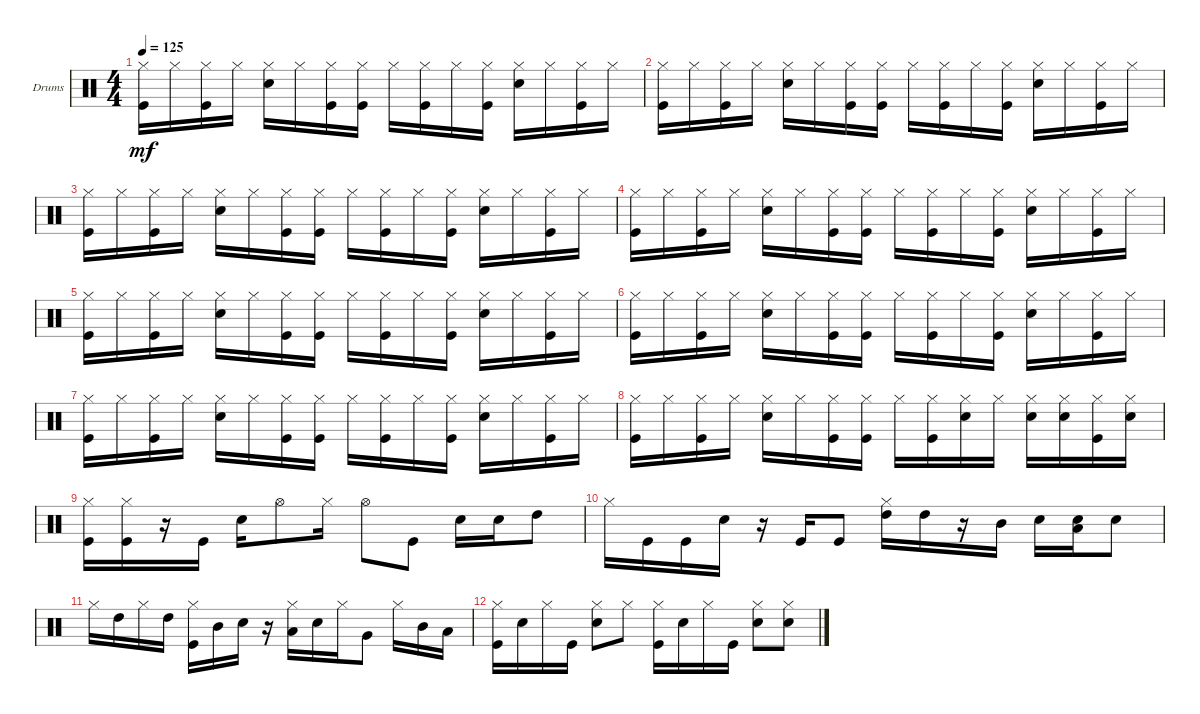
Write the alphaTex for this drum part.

\defaultSystemsLayout 4
\bracketExtendMode groupsimilarinstruments
\firstSystemTrackNameOrientation horizontal
\otherSystemsTrackNameOrientation horizontal
\track ("Drumkit" "Drums") {instrument percussion}
\staff {score}
\articulation defaults
\ts (4 4)
\tempo 125
\clef neutral
\ks c
("Hi-Hat (closed)" "Kick (hit)").16{dy mf} "Hi-Hat (closed)".16 ("Hi-Hat (closed)" "Kick (hit)").16 "Hi-Hat (closed)".16 ("Hi-Hat (closed)" "Snare (hit) 2").16 "Hi-Hat (closed)".16 ("Hi-Hat (closed)" "Kick (hit)").16 ("Hi-Hat (closed)" "Kick (hit)").16 "Hi-Hat (closed)".16 ("Hi-Hat (closed)" "Kick (hit)").16 "Hi-Hat (closed)".16 ("Hi-Hat (closed)" "Kick (hit)").16 ("Hi-Hat (closed)" "Snare (hit) 2").16 "Hi-Hat (closed)".16 ("Hi-Hat (closed)" "Kick (hit)").16 "Hi-Hat (closed)".16 |
("Hi-Hat (closed)" "Kick (hit)").16 "Hi-Hat (closed)".16 ("Hi-Hat (closed)" "Kick (hit)").16 "Hi-Hat (closed)".16 ("Hi-Hat (closed)" "Snare (hit) 2").16 "Hi-Hat (closed)".16 ("Hi-Hat (closed)" "Kick (hit)").16 ("Hi-Hat (closed)" "Kick (hit)").16 "Hi-Hat (closed)".16 ("Hi-Hat (closed)" "Kick (hit)").16 "Hi-Hat (closed)".16 ("Hi-Hat (closed)" "Kick (hit)").16 ("Hi-Hat (closed)" "Snare (hit) 2").16 "Hi-Hat (closed)".16 ("Hi-Hat (closed)" "Kick (hit)").16 "Hi-Hat (closed)".16 |
("Hi-Hat (closed)" "Kick (hit)").16 "Hi-Hat (closed)".16 ("Hi-Hat (closed)" "Kick (hit)").16 "Hi-Hat (closed)".16 ("Hi-Hat (closed)" "Snare (hit) 2").16 "Hi-Hat (closed)".16 ("Hi-Hat (closed)" "Kick (hit)").16 ("Hi-Hat (closed)" "Kick (hit)").16 "Hi-Hat (closed)".16 ("Hi-Hat (closed)" "Kick (hit)").16 "Hi-Hat (closed)".16 ("Hi-Hat (closed)" "Kick (hit)").16 ("Hi-Hat (closed)" "Snare (hit) 2").16 "Hi-Hat (closed)".16 ("Hi-Hat (closed)" "Kick (hit)").16 "Hi-Hat (closed)".16 |
("Hi-Hat (closed)" "Kick (hit)").16 "Hi-Hat (closed)".16 ("Hi-Hat (closed)" "Kick (hit)").16 "Hi-Hat (closed)".16 ("Hi-Hat (closed)" "Snare (hit) 2").16 "Hi-Hat (closed)".16 ("Hi-Hat (closed)" "Kick (hit)").16 ("Hi-Hat (closed)" "Kick (hit)").16 "Hi-Hat (closed)".16 ("Hi-Hat (closed)" "Kick (hit)").16 "Hi-Hat (closed)".16 ("Hi-Hat (closed)" "Kick (hit)").16 ("Hi-Hat (closed)" "Snare (hit) 2").16 "Hi-Hat (closed)".16 ("Hi-Hat (closed)" "Kick (hit)").16 "Hi-Hat (closed)".16 |
("Hi-Hat (closed)" "Kick (hit)").16 "Hi-Hat (closed)".16 ("Hi-Hat (closed)" "Kick (hit)").16 "Hi-Hat (closed)".16 ("Hi-Hat (closed)" "Snare (hit) 2").16 "Hi-Hat (closed)".16 ("Hi-Hat (closed)" "Kick (hit)").16 ("Hi-Hat (closed)" "Kick (hit)").16 "Hi-Hat (closed)".16 ("Hi-Hat (closed)" "Kick (hit)").16 "Hi-Hat (closed)".16 ("Hi-Hat (closed)" "Kick (hit)").16 ("Hi-Hat (closed)" "Snare (hit) 2").16 "Hi-Hat (closed)".16 ("Hi-Hat (closed)" "Kick (hit)").16 "Hi-Hat (closed)".16 |
("Hi-Hat (closed)" "Kick (hit)").16 "Hi-Hat (closed)".16 ("Hi-Hat (closed)" "Kick (hit)").16 "Hi-Hat (closed)".16 ("Hi-Hat (closed)" "Snare (hit) 2").16 "Hi-Hat (closed)".16 ("Hi-Hat (closed)" "Kick (hit)").16 ("Hi-Hat (closed)" "Kick (hit)").16 "Hi-Hat (closed)".16 ("Hi-Hat (closed)" "Kick (hit)").16 "Hi-Hat (closed)".16 ("Hi-Hat (closed)" "Kick (hit)").16 ("Hi-Hat (closed)" "Snare (hit) 2").16 "Hi-Hat (closed)".16 ("Hi-Hat (closed)" "Kick (hit)").16 "Hi-Hat (closed)".16 |
("Hi-Hat (closed)" "Kick (hit)").16 "Hi-Hat (closed)".16 ("Hi-Hat (closed)" "Kick (hit)").16 "Hi-Hat (closed)".16 ("Hi-Hat (closed)" "Snare (hit) 2").16 "Hi-Hat (closed)".16 ("Hi-Hat (closed)" "Kick (hit)").16 ("Hi-Hat (closed)" "Kick (hit)").16 "Hi-Hat (closed)".16 ("Hi-Hat (closed)" "Kick (hit)").16 "Hi-Hat (closed)".16 ("Hi-Hat (closed)" "Kick (hit)").16 ("Hi-Hat (closed)" "Snare (hit) 2").16 "Hi-Hat (closed)".16 ("Hi-Hat (closed)" "Kick (hit)").16 "Hi-Hat (closed)".16 |
("Hi-Hat (closed)" "Kick (hit)").16 "Hi-Hat (closed)".16 ("Hi-Hat (closed)" "Kick (hit)").16 "Hi-Hat (closed)".16 ("Hi-Hat (closed)" "Snare (hit) 2").16 "Hi-Hat (closed)".16 ("Hi-Hat (closed)" "Kick (hit)").16 ("Hi-Hat (closed)" "Kick (hit)").16 "Hi-Hat (closed)".16 ("Hi-Hat (closed)" "Kick (hit)").16 ("Hi-Hat (closed)" "Snare (hit) 2").16 "Hi-Hat (closed)".16 ("Hi-Hat (closed)" "Snare (hit) 2").16 ("Hi-Hat (closed)" "Snare (hit) 2").16 ("Hi-Hat (closed)" "Kick (hit)").16 ("Hi-Hat (closed)" "Snare (hit) 2").16 |
("Kick (hit)" "Hi-Hat (closed)").16 ("Kick (hit)" "Hi-Hat (closed)").16 r.16 "Kick (hit)".16 "Snare (hit) 2".16 "Hi-Hat (open)".8 "Hi-Hat (closed)".16 "Hi-Hat (open)".8 "Kick (hit)".8 "Snare (hit) 2".16 "Snare (hit) 2".16 "High Tom (hit)".8 |
"Hi-Hat (closed)".16 "Kick (hit)".16 "Kick (hit)".16 "Snare (hit) 2".16 r.16 "Kick (hit)".16 "Kick (hit)".8 ("Hi-Hat (closed)" "High Tom (hit)").16 "High Tom (hit)".16 r.16 "Mid Tom (hit)".16 "Snare (hit) 2".16 ("Low Tom (hit)" "Snare (hit) 2").16 "Snare (hit) 2".8 |
"Hi-Hat (closed)".16 "High Tom (hit)".16 "Hi-Hat (closed)".16 "High Tom (hit)".16 ("Kick (hit)" "Hi-Hat (closed)").16 "Mid Tom (hit)".16 "Snare (hit) 2".16 r.16 ("Low Tom (hit)" "Hi-Hat (closed)").16 "Snare (hit) 2".16 "Hi-Hat (closed)".16 "Very Low Tom (hit)".8 "Hi-Hat (closed)".16 "Mid Tom (hit)".16 "Low Tom (hit)".16 |
("Hi-Hat (closed)" "Kick (hit)").16 "Snare (hit) 2".16 "Hi-Hat (closed)".16 "Kick (hit)".16 ("Hi-Hat (closed)" "Snare (hit) 2").8 "Hi-Hat (closed)".8 ("Hi-Hat (closed)" "Kick (hit)").16 "Snare (hit) 2".16 "Hi-Hat (closed)".16 "Kick (hit)".16 ("Hi-Hat (closed)" "Snare (hit) 2").8 ("Hi-Hat (closed)" "Snare (hit) 2").8
